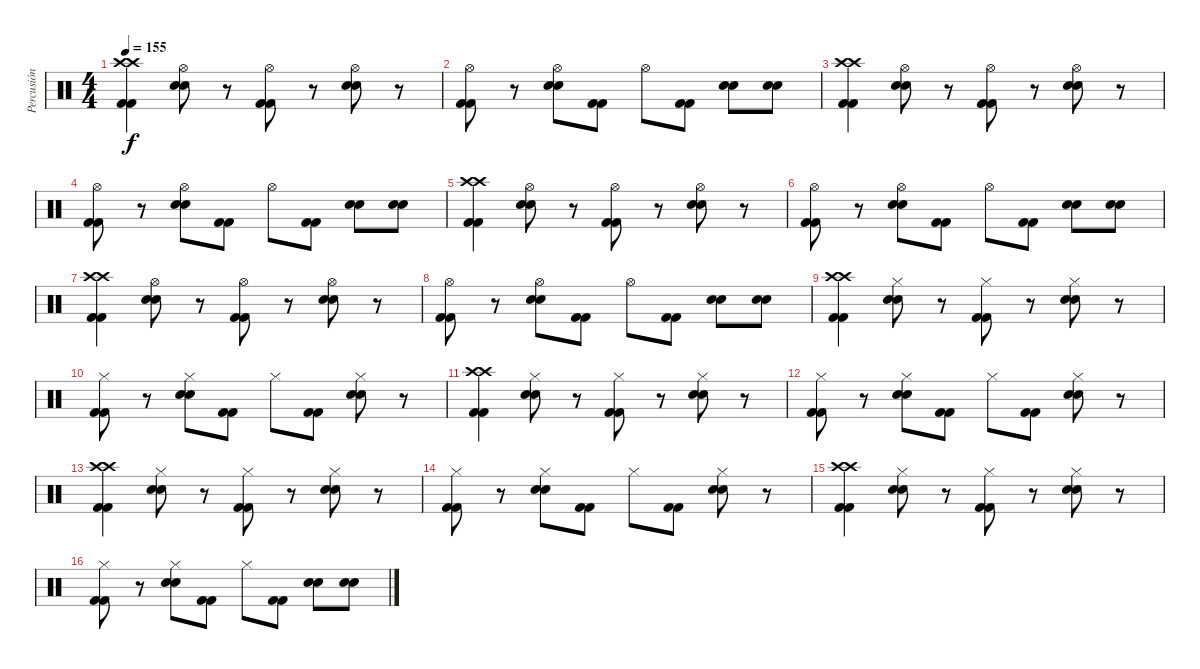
\track ("Percusión" "Percusión") {instrument percussion}
\staff {score}
\articulation defaults
\ts (4 4)
\tempo 155
\clef neutral
\ks c
("Crash high (hit)" "Crash high (hit)" "Kick (hit) 2" "Kick (hit) 2").4{dy f} ("Hi-Hat (open)" "Electric Snare (hit)" "Electric Snare (hit)").8 r.8 ("Hi-Hat (open)" "Kick (hit) 2" "Kick (hit) 2").8 r.8 ("Hi-Hat (open)" "Electric Snare (hit)" "Electric Snare (hit)").8 r.8 |
("Hi-Hat (open)" "Kick (hit) 2" "Kick (hit) 2").8 r.8 ("Hi-Hat (open)" "Electric Snare (hit)" "Electric Snare (hit)").8 ("Kick (hit) 2" "Kick (hit) 2").8 "Hi-Hat (open)".8 ("Kick (hit) 2" "Kick (hit) 2").8 ("Electric Snare (hit)" "Electric Snare (hit)").8 ("Electric Snare (hit)" "Electric Snare (hit)").8 |
("Crash high (hit)" "Crash high (hit)" "Kick (hit) 2" "Kick (hit) 2").4 ("Hi-Hat (open)" "Electric Snare (hit)" "Electric Snare (hit)").8 r.8 ("Hi-Hat (open)" "Kick (hit) 2" "Kick (hit) 2").8 r.8 ("Hi-Hat (open)" "Electric Snare (hit)" "Electric Snare (hit)").8 r.8 |
("Hi-Hat (open)" "Kick (hit) 2" "Kick (hit) 2").8 r.8 ("Hi-Hat (open)" "Electric Snare (hit)" "Electric Snare (hit)").8 ("Kick (hit) 2" "Kick (hit) 2").8 "Hi-Hat (open)".8 ("Kick (hit) 2" "Kick (hit) 2").8 ("Electric Snare (hit)" "Electric Snare (hit)").8 ("Electric Snare (hit)" "Electric Snare (hit)").8 |
("Crash high (hit)" "Crash high (hit)" "Kick (hit) 2" "Kick (hit) 2").4 ("Hi-Hat (open)" "Electric Snare (hit)" "Electric Snare (hit)").8 r.8 ("Hi-Hat (open)" "Kick (hit) 2" "Kick (hit) 2").8 r.8 ("Hi-Hat (open)" "Electric Snare (hit)" "Electric Snare (hit)").8 r.8 |
("Hi-Hat (open)" "Kick (hit) 2" "Kick (hit) 2").8 r.8 ("Hi-Hat (open)" "Electric Snare (hit)" "Electric Snare (hit)").8 ("Kick (hit) 2" "Kick (hit) 2").8 "Hi-Hat (open)".8 ("Kick (hit) 2" "Kick (hit) 2").8 ("Electric Snare (hit)" "Electric Snare (hit)").8 ("Electric Snare (hit)" "Electric Snare (hit)").8 |
("Crash high (hit)" "Crash high (hit)" "Kick (hit) 2" "Kick (hit) 2").4 ("Hi-Hat (open)" "Electric Snare (hit)" "Electric Snare (hit)").8 r.8 ("Hi-Hat (open)" "Kick (hit) 2" "Kick (hit) 2").8 r.8 ("Hi-Hat (open)" "Electric Snare (hit)" "Electric Snare (hit)").8 r.8 |
("Hi-Hat (open)" "Kick (hit) 2" "Kick (hit) 2").8 r.8 ("Hi-Hat (open)" "Electric Snare (hit)" "Electric Snare (hit)").8 ("Kick (hit) 2" "Kick (hit) 2").8 "Hi-Hat (open)".8 ("Kick (hit) 2" "Kick (hit) 2").8 ("Electric Snare (hit)" "Electric Snare (hit)").8 ("Electric Snare (hit)" "Electric Snare (hit)").8 |
("Crash high (hit)" "Crash high (hit)" "Kick (hit) 2" "Kick (hit) 2").4 ("Hi-Hat (closed)" "Electric Snare (hit)" "Electric Snare (hit)").8 r.8 ("Hi-Hat (closed)" "Kick (hit) 2" "Kick (hit) 2").8 r.8 ("Hi-Hat (closed)" "Electric Snare (hit)" "Electric Snare (hit)").8 r.8 |
("Hi-Hat (closed)" "Kick (hit) 2" "Kick (hit) 2").8 r.8 ("Hi-Hat (closed)" "Electric Snare (hit)" "Electric Snare (hit)").8 ("Kick (hit) 2" "Kick (hit) 2").8 "Hi-Hat (closed)".8 ("Kick (hit) 2" "Kick (hit) 2").8 ("Hi-Hat (closed)" "Electric Snare (hit)" "Electric Snare (hit)").8 r.8 |
("Crash high (hit)" "Crash high (hit)" "Kick (hit) 2" "Kick (hit) 2").4 ("Hi-Hat (closed)" "Electric Snare (hit)" "Electric Snare (hit)").8 r.8 ("Hi-Hat (closed)" "Kick (hit) 2" "Kick (hit) 2").8 r.8 ("Hi-Hat (closed)" "Electric Snare (hit)" "Electric Snare (hit)").8 r.8 |
("Hi-Hat (closed)" "Kick (hit) 2" "Kick (hit) 2").8 r.8 ("Hi-Hat (closed)" "Electric Snare (hit)" "Electric Snare (hit)").8 ("Kick (hit) 2" "Kick (hit) 2").8 "Hi-Hat (closed)".8 ("Kick (hit) 2" "Kick (hit) 2").8 ("Hi-Hat (closed)" "Electric Snare (hit)" "Electric Snare (hit)").8 r.8 |
("Crash high (hit)" "Crash high (hit)" "Kick (hit) 2" "Kick (hit) 2").4 ("Hi-Hat (closed)" "Electric Snare (hit)" "Electric Snare (hit)").8 r.8 ("Hi-Hat (closed)" "Kick (hit) 2" "Kick (hit) 2").8 r.8 ("Hi-Hat (closed)" "Electric Snare (hit)" "Electric Snare (hit)").8 r.8 |
("Hi-Hat (closed)" "Kick (hit) 2" "Kick (hit) 2").8 r.8 ("Hi-Hat (closed)" "Electric Snare (hit)" "Electric Snare (hit)").8 ("Kick (hit) 2" "Kick (hit) 2").8 "Hi-Hat (closed)".8 ("Kick (hit) 2" "Kick (hit) 2").8 ("Hi-Hat (closed)" "Electric Snare (hit)" "Electric Snare (hit)").8 r.8 |
("Crash high (hit)" "Crash high (hit)" "Kick (hit) 2" "Kick (hit) 2").4 ("Hi-Hat (closed)" "Electric Snare (hit)" "Electric Snare (hit)").8 r.8 ("Hi-Hat (closed)" "Kick (hit) 2" "Kick (hit) 2").8 r.8 ("Hi-Hat (closed)" "Electric Snare (hit)" "Electric Snare (hit)").8 r.8 |
("Hi-Hat (closed)" "Kick (hit) 2" "Kick (hit) 2").8 r.8 ("Hi-Hat (closed)" "Electric Snare (hit)" "Electric Snare (hit)").8 ("Kick (hit) 2" "Kick (hit) 2").8 "Hi-Hat (closed)".8 ("Kick (hit) 2" "Kick (hit) 2").8 ("Electric Snare (hit)" "Electric Snare (hit)").8 ("Electric Snare (hit)" "Electric Snare (hit)").8
